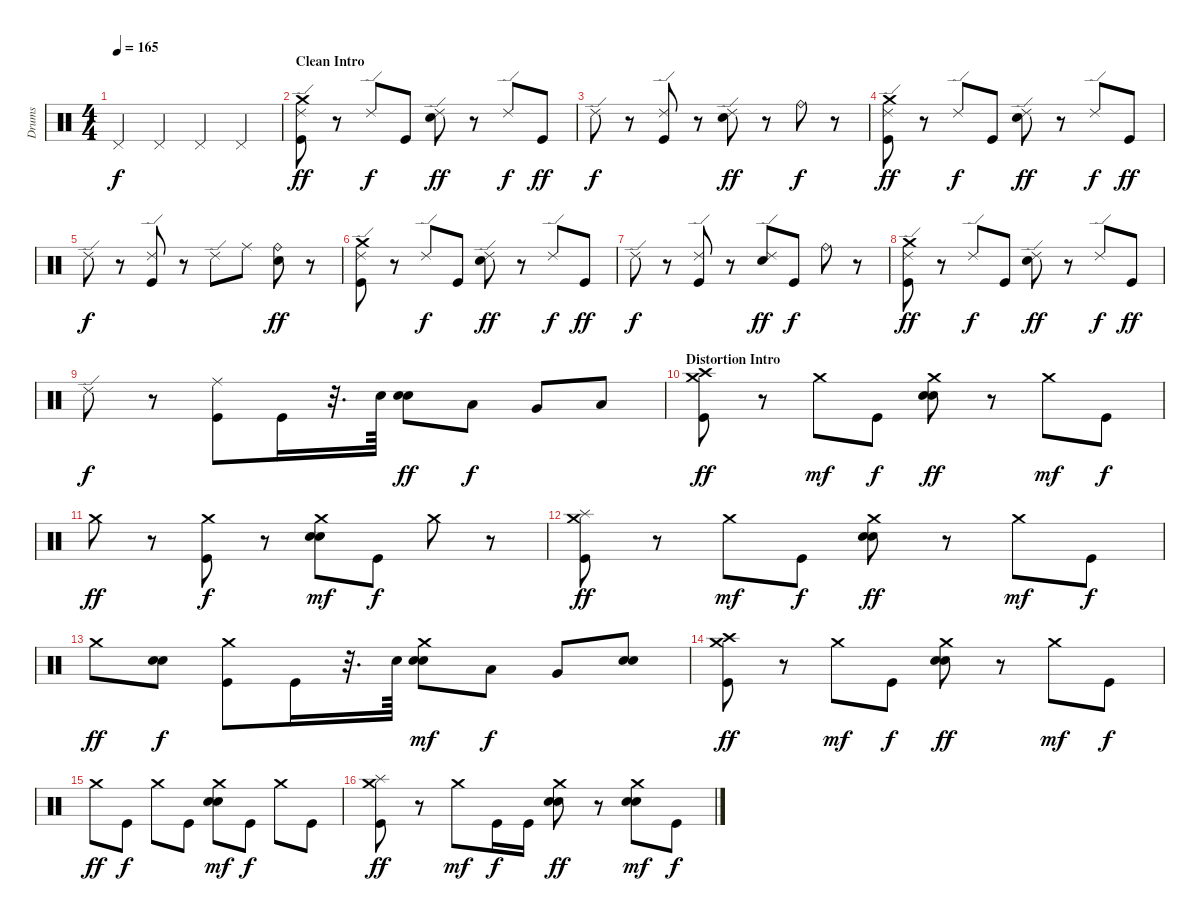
\track ("Drums" "Drums") {instrument percussion}
\staff {score}
\articulation defaults
\ts (4 4)
\tempo 165
\clef neutral
\ks c "Pedal Hi-Hat (hit)".4{dy f} "Pedal Hi-Hat (hit)".4 "Pedal Hi-Hat (hit)".4 "Pedal Hi-Hat (hit)".4
|
\section ("" "Clean Intro")
("Kick (hit)" "Ride (edge) 2" "Crash medium (hit)").8{dy ff} r.8 "Ride (edge) 2".8{dy f} "Kick (hit)".8 ("Electric Snare (hit)" "Ride (edge) 2").8{dy ff} r.8 "Ride (edge) 2".8{dy f} "Kick (hit)".8{dy ff} |
"Ride (edge) 2".8{dy f} r.8 ("Kick (hit)" "Ride (edge) 2").8 r.8 ("Electric Snare (hit)" "Ride (edge) 2").8{dy ff} r.8 "Ride (bell)".8{dy f} r.8 |
("Kick (hit)" "Ride (edge) 2" "Crash medium (hit)").8{dy ff} r.8 "Ride (edge) 2".8{dy f} "Kick (hit)".8 ("Electric Snare (hit)" "Ride (edge) 2").8{dy ff} r.8 "Ride (edge) 2".8{dy f} "Kick (hit)".8{dy ff} |
"Ride (edge) 2".8{dy f} r.8 ("Kick (hit)" "Ride (edge) 2").8 r.8 "Ride (edge) 2".8 "Ride (middle)".8 ("Electric Snare (hit)" "Ride (bell)").8{dy ff} r.8 |
("Kick (hit)" "Ride (edge) 2" "Crash medium (hit)").8 r.8 "Ride (edge) 2".8{dy f} "Kick (hit)".8 ("Electric Snare (hit)" "Ride (edge) 2").8{dy ff} r.8 "Ride (edge) 2".8{dy f} "Kick (hit)".8{dy ff} |
"Ride (edge) 2".8{dy f} r.8 ("Kick (hit)" "Ride (edge) 2").8 r.8 ("Electric Snare (hit)" "Ride (edge) 2").8{dy ff} "Kick (hit)".8{dy f} "Ride (bell)".8 r.8 |
("Kick (hit)" "Ride (edge) 2" "Crash medium (hit)").8{dy ff} r.8 "Ride (edge) 2".8{dy f} "Kick (hit)".8 ("Electric Snare (hit)" "Ride (edge) 2").8{dy ff} r.8 "Ride (edge) 2".8{dy f} "Kick (hit)".8{dy ff} |
"Ride (edge) 2".8{dy f} r.8 ("Kick (hit)" "Ride (middle)").8 "Kick (hit)".16 r.32{d} "Electric Snare (hit)".64 ("Electric Snare (hit)" "Electric Snare (hit)").8{dy ff} "Low Tom (hit)".8{dy f} "Very Low Tom (hit)".8 "Low Floor Tom (hit)".8 |
\section ("" "Distortion Intro")
("Kick (hit)" "Crash medium (hit)" "Crash high (hit)").8{dy ff} r.8 "Crash medium (hit)".8{dy mf} "Kick (hit)".8{dy f} ("Electric Snare (hit)" "Electric Snare (hit)" "Crash medium (hit)").8{dy ff} r.8 "Crash medium (hit)".8{dy mf} "Kick (hit)".8{dy f} |
"Crash medium (hit)".8{dy ff} r.8 ("Kick (hit)" "Crash medium (hit)").8{dy f} r.8 ("Electric Snare (hit)" "Electric Snare (hit)" "Crash medium (hit)").8{dy mf} "Kick (hit)".8{dy f} "Crash medium (hit)".8 r.8 |
("Kick (hit)" "Crash medium (hit)" "Splash (hit)").8{dy ff} r.8 "Crash medium (hit)".8{dy mf} "Kick (hit)".8{dy f} ("Electric Snare (hit)" "Electric Snare (hit)" "Crash medium (hit)").8{dy ff} r.8 "Crash medium (hit)".8{dy mf} "Kick (hit)".8{dy f} |
"Crash medium (hit)".8{dy ff} ("Electric Snare (hit)" "Electric Snare (hit)").8{dy f} ("Kick (hit)" "Crash medium (hit)").8 "Kick (hit)".16 r.32{d} "Electric Snare (hit)".64 ("Electric Snare (hit)" "Electric Snare (hit)" "Crash medium (hit)").8{dy mf} "Low Tom (hit)".8{dy f} "Very Low Tom (hit)".8 ("Electric Snare (hit)" "Electric Snare (hit)").8 |
("Kick (hit)" "Crash medium (hit)" "Crash high (hit)").8{dy ff} r.8 "Crash medium (hit)".8{dy mf} "Kick (hit)".8{dy f} ("Electric Snare (hit)" "Electric Snare (hit)" "Crash medium (hit)").8{dy ff} r.8 "Crash medium (hit)".8{dy mf} "Kick (hit)".8{dy f} |
"Crash medium (hit)".8{dy ff} "Kick (hit)".8{dy f} "Crash medium (hit)".8 "Kick (hit)".8 ("Electric Snare (hit)" "Electric Snare (hit)" "Crash medium (hit)").8{dy mf} "Kick (hit)".8{dy f} "Crash medium (hit)".8 "Kick (hit)".8 |
("Kick (hit)" "Crash medium (hit)" "Splash (hit)").8{dy ff} r.8 "Crash medium (hit)".8{dy mf} "Kick (hit)".16{dy f} "Kick (hit)".16 ("Electric Snare (hit)" "Electric Snare (hit)" "Crash medium (hit)").8{dy ff} r.8 ("Electric Snare (hit)" "Electric Snare (hit)" "Crash medium (hit)").8{dy mf} "Kick (hit)".8{dy f}
